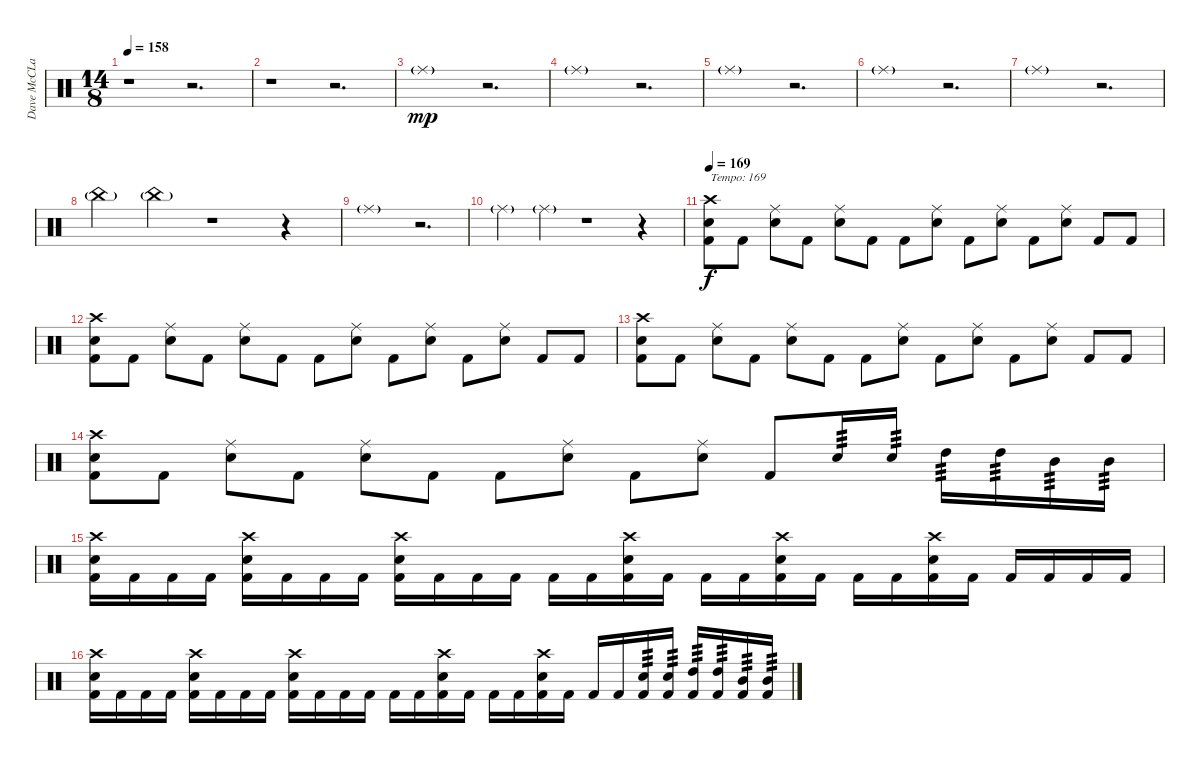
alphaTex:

\track ("Dave McCLain" "Dave McCLa") {instrument percussion}
\staff {score}
\articulation defaults
\ts (14 8)
\tempo 158
\clef neutral
\ks c
r.1{dy f} r.2{d} |
r.1 r.2{d} |
"Ride (middle)"{g}.1{dy mp} r.2{d} |
"Ride (middle)"{g}.1 r.2{d} |
"Ride (middle)"{g}.1 r.2{d} |
"Ride (middle)"{g}.1 r.2{d} |
"Ride (middle)"{g}.1 r.2{d} |
"China (hit)"{g}.4 "China (hit)"{g}.4 r.1 r.4 |
"Ride (middle)"{g}.1 r.2{d} |
"Ride (middle)"{g}.4 "Ride (middle)"{g}.4 r.1 r.4 |
\tempo 169
("Crash high (hit)" "Electric Snare (hit)" "Kick (hit) 2").8{txt "Tempo: 169" dy f volume 16} "Kick (hit) 2".8 ("Ride (middle)" "Electric Snare (hit)").8 "Kick (hit) 2".8 ("Ride (middle)" "Electric Snare (hit)").8 "Kick (hit) 2".8 "Kick (hit) 2".8 ("Ride (middle)" "Electric Snare (hit)").8 "Kick (hit) 2".8 ("Ride (middle)" "Electric Snare (hit)").8 "Kick (hit) 2".8 ("Ride (middle)" "Electric Snare (hit)").8 "Kick (hit) 2".8 "Kick (hit) 2".8 |
("Crash high (hit)" "Electric Snare (hit)" "Kick (hit) 2").8 "Kick (hit) 2".8 ("Ride (middle)" "Electric Snare (hit)").8 "Kick (hit) 2".8 ("Ride (middle)" "Electric Snare (hit)").8 "Kick (hit) 2".8 "Kick (hit) 2".8 ("Ride (middle)" "Electric Snare (hit)").8 "Kick (hit) 2".8 ("Ride (middle)" "Electric Snare (hit)").8 "Kick (hit) 2".8 ("Ride (middle)" "Electric Snare (hit)").8 "Kick (hit) 2".8 "Kick (hit) 2".8 |
("Crash high (hit)" "Electric Snare (hit)" "Kick (hit) 2").8 "Kick (hit) 2".8 ("Ride (middle)" "Electric Snare (hit)").8 "Kick (hit) 2".8 ("Ride (middle)" "Electric Snare (hit)").8 "Kick (hit) 2".8 "Kick (hit) 2".8 ("Ride (middle)" "Electric Snare (hit)").8 "Kick (hit) 2".8 ("Ride (middle)" "Electric Snare (hit)").8 "Kick (hit) 2".8 ("Ride (middle)" "Electric Snare (hit)").8 "Kick (hit) 2".8 "Kick (hit) 2".8 |
("Crash high (hit)" "Electric Snare (hit)" "Kick (hit) 2").8 "Kick (hit) 2".8 ("Ride (middle)" "Electric Snare (hit)").8 "Kick (hit) 2".8 ("Ride (middle)" "Electric Snare (hit)").8 "Kick (hit) 2".8 "Kick (hit) 2".8 ("Ride (middle)" "Electric Snare (hit)").8 "Kick (hit) 2".8 ("Ride (middle)" "Electric Snare (hit)").8 "Kick (hit) 2".8 "Electric Snare (hit)".16{tp 3} "Electric Snare (hit)".16{tp 3} "High Tom (hit)".16{tp 3} "High Tom (hit)".16{tp 3} "Mid Tom (hit)".16{tp 3} "Mid Tom (hit)".16{tp 3} |
("Crash high (hit)" "Electric Snare (hit)" "Kick (hit) 2").16 "Kick (hit) 2".16 "Kick (hit) 2".16 "Kick (hit) 2".16 ("Crash high (hit)" "Electric Snare (hit)" "Kick (hit) 2").16 "Kick (hit) 2".16 "Kick (hit) 2".16 "Kick (hit) 2".16 ("Crash high (hit)" "Electric Snare (hit)" "Kick (hit) 2").16 "Kick (hit) 2".16 "Kick (hit) 2".16 "Kick (hit) 2".16 "Kick (hit) 2".16 "Kick (hit) 2".16 ("Crash high (hit)" "Electric Snare (hit)" "Kick (hit) 2").16 "Kick (hit) 2".16 "Kick (hit) 2".16 "Kick (hit) 2".16 ("Crash high (hit)" "Electric Snare (hit)" "Kick (hit) 2").16 "Kick (hit) 2".16 "Kick (hit) 2".16 "Kick (hit) 2".16 ("Crash high (hit)" "Electric Snare (hit)" "Kick (hit) 2").16 "Kick (hit) 2".16 "Kick (hit) 2".16 "Kick (hit) 2".16 "Kick (hit) 2".16 "Kick (hit) 2".16 |
("Crash high (hit)" "Electric Snare (hit)" "Kick (hit) 2").16 "Kick (hit) 2".16 "Kick (hit) 2".16 "Kick (hit) 2".16 ("Crash high (hit)" "Electric Snare (hit)" "Kick (hit) 2").16 "Kick (hit) 2".16 "Kick (hit) 2".16 "Kick (hit) 2".16 ("Crash high (hit)" "Electric Snare (hit)" "Kick (hit) 2").16 "Kick (hit) 2".16 "Kick (hit) 2".16 "Kick (hit) 2".16 "Kick (hit) 2".16 "Kick (hit) 2".16 ("Crash high (hit)" "Electric Snare (hit)" "Kick (hit) 2").16 "Kick (hit) 2".16 "Kick (hit) 2".16 "Kick (hit) 2".16 ("Crash high (hit)" "Electric Snare (hit)" "Kick (hit) 2").16 "Kick (hit) 2".16 "Kick (hit) 2".16 "Kick (hit) 2".16 ("Electric Snare (hit)" "Kick (hit) 2").16{tp 3} ("Electric Snare (hit)" "Kick (hit) 2").16{tp 3} ("High Tom (hit)" "Kick (hit) 2").16{tp 3} ("High Tom (hit)" "Kick (hit) 2").16{tp 3} ("Mid Tom (hit)" "Kick (hit) 2").16{tp 3} ("Mid Tom (hit)" "Kick (hit) 2").16{tp 3}
